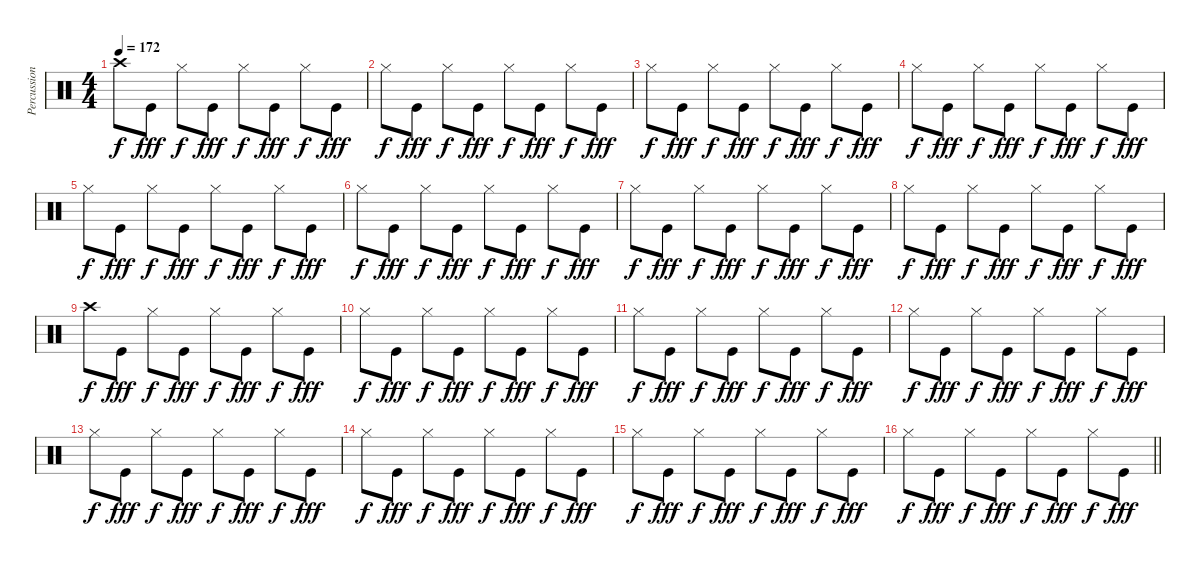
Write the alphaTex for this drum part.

\track ("Percussions" "Percussion") {instrument percussion}
\staff {score}
\articulation defaults
\ts (4 4)
\tempo 172
\clef neutral
\ks c "Crash high (hit)".8{dy f} "Kick (hit)".8{dy fff} "Hi-Hat (closed)".8{dy f} "Kick (hit)".8{dy fff} "Hi-Hat (closed)".8{dy f} "Kick (hit)".8{dy fff} "Hi-Hat (closed)".8{dy f} "Kick (hit)".8{dy fff}
|
"Hi-Hat (closed)".8{dy f} "Kick (hit)".8{dy fff} "Hi-Hat (closed)".8{dy f} "Kick (hit)".8{dy fff} "Hi-Hat (closed)".8{dy f} "Kick (hit)".8{dy fff} "Hi-Hat (closed)".8{dy f} "Kick (hit)".8{dy fff} |
"Hi-Hat (closed)".8{dy f} "Kick (hit)".8{dy fff} "Hi-Hat (closed)".8{dy f} "Kick (hit)".8{dy fff} "Hi-Hat (closed)".8{dy f} "Kick (hit)".8{dy fff} "Hi-Hat (closed)".8{dy f} "Kick (hit)".8{dy fff} |
"Hi-Hat (closed)".8{dy f} "Kick (hit)".8{dy fff} "Hi-Hat (closed)".8{dy f} "Kick (hit)".8{dy fff} "Hi-Hat (closed)".8{dy f} "Kick (hit)".8{dy fff} "Hi-Hat (closed)".8{dy f} "Kick (hit)".8{dy fff} |
"Hi-Hat (closed)".8{dy f} "Kick (hit)".8{dy fff} "Hi-Hat (closed)".8{dy f} "Kick (hit)".8{dy fff} "Hi-Hat (closed)".8{dy f} "Kick (hit)".8{dy fff} "Hi-Hat (closed)".8{dy f} "Kick (hit)".8{dy fff} |
"Hi-Hat (closed)".8{dy f} "Kick (hit)".8{dy fff} "Hi-Hat (closed)".8{dy f} "Kick (hit)".8{dy fff} "Hi-Hat (closed)".8{dy f} "Kick (hit)".8{dy fff} "Hi-Hat (closed)".8{dy f} "Kick (hit)".8{dy fff} |
"Hi-Hat (closed)".8{dy f} "Kick (hit)".8{dy fff} "Hi-Hat (closed)".8{dy f} "Kick (hit)".8{dy fff} "Hi-Hat (closed)".8{dy f} "Kick (hit)".8{dy fff} "Hi-Hat (closed)".8{dy f} "Kick (hit)".8{dy fff} |
"Hi-Hat (closed)".8{dy f} "Kick (hit)".8{dy fff} "Hi-Hat (closed)".8{dy f} "Kick (hit)".8{dy fff} "Hi-Hat (closed)".8{dy f} "Kick (hit)".8{dy fff} "Hi-Hat (closed)".8{dy f} "Kick (hit)".8{dy fff} |
"Crash high (hit)".8{dy f} "Kick (hit)".8{dy fff} "Hi-Hat (closed)".8{dy f} "Kick (hit)".8{dy fff} "Hi-Hat (closed)".8{dy f} "Kick (hit)".8{dy fff} "Hi-Hat (closed)".8{dy f} "Kick (hit)".8{dy fff} |
"Hi-Hat (closed)".8{dy f} "Kick (hit)".8{dy fff} "Hi-Hat (closed)".8{dy f} "Kick (hit)".8{dy fff} "Hi-Hat (closed)".8{dy f} "Kick (hit)".8{dy fff} "Hi-Hat (closed)".8{dy f} "Kick (hit)".8{dy fff} |
"Hi-Hat (closed)".8{dy f} "Kick (hit)".8{dy fff} "Hi-Hat (closed)".8{dy f} "Kick (hit)".8{dy fff} "Hi-Hat (closed)".8{dy f} "Kick (hit)".8{dy fff} "Hi-Hat (closed)".8{dy f} "Kick (hit)".8{dy fff} |
"Hi-Hat (closed)".8{dy f} "Kick (hit)".8{dy fff} "Hi-Hat (closed)".8{dy f} "Kick (hit)".8{dy fff} "Hi-Hat (closed)".8{dy f} "Kick (hit)".8{dy fff} "Hi-Hat (closed)".8{dy f} "Kick (hit)".8{dy fff} |
"Hi-Hat (closed)".8{dy f} "Kick (hit)".8{dy fff} "Hi-Hat (closed)".8{dy f} "Kick (hit)".8{dy fff} "Hi-Hat (closed)".8{dy f} "Kick (hit)".8{dy fff} "Hi-Hat (closed)".8{dy f} "Kick (hit)".8{dy fff} |
"Hi-Hat (closed)".8{dy f} "Kick (hit)".8{dy fff} "Hi-Hat (closed)".8{dy f} "Kick (hit)".8{dy fff} "Hi-Hat (closed)".8{dy f} "Kick (hit)".8{dy fff} "Hi-Hat (closed)".8{dy f} "Kick (hit)".8{dy fff} |
"Hi-Hat (closed)".8{dy f} "Kick (hit)".8{dy fff} "Hi-Hat (closed)".8{dy f} "Kick (hit)".8{dy fff} "Hi-Hat (closed)".8{dy f} "Kick (hit)".8{dy fff} "Hi-Hat (closed)".8{dy f} "Kick (hit)".8{dy fff} |
\barLineRight lightlight "Hi-Hat (closed)".8{dy f} "Kick (hit)".8{dy fff} "Hi-Hat (closed)".8{dy f} "Kick (hit)".8{dy fff} "Hi-Hat (closed)".8{dy f} "Kick (hit)".8{dy fff} "Hi-Hat (closed)".8{dy f} "Kick (hit)".8{dy fff}
